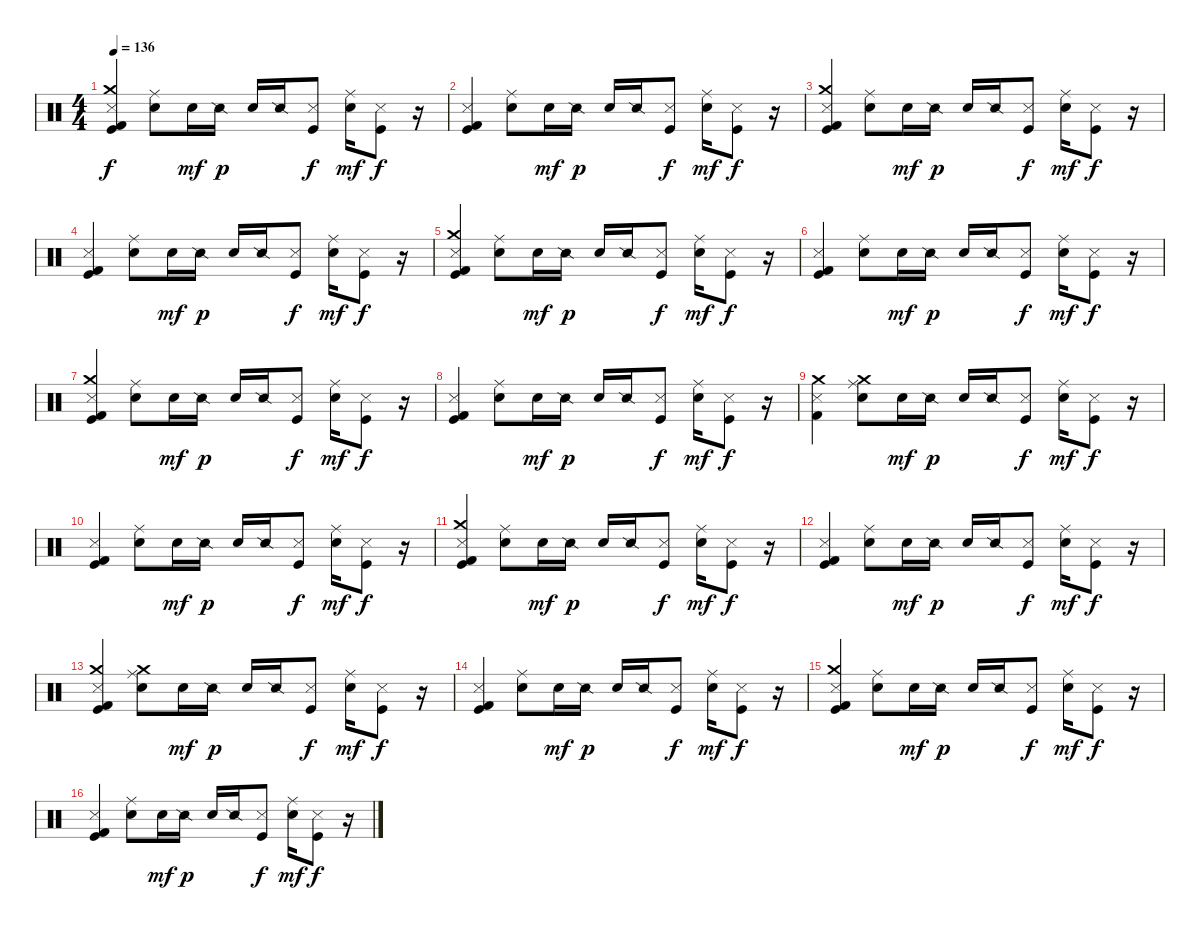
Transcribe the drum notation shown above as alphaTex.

\track "" {instrument percussion}
\staff {score}
\articulation defaults
\ts (4 4)
\tempo 136
\clef neutral
\ks c
("Metronome (hit)" "Kick (hit) 2" "Crash medium (hit)" "Kick (hit)").4{dy f} ("Ride (middle)" "Metronome (bell)").8 "Electric Snare (hit)".16{dy mf} "Snare (side stick) 2".16{dy p} "Electric Snare (hit)".16 "Snare (side stick) 2".16 ("Metronome (hit)" "Kick (hit)").8{dy f} ("Ride (middle)" "Electric Snare (hit)").16{dy mf} ("Metronome (hit)" "Kick (hit)").8{dy f} r.16 |
("Metronome (hit)" "Kick (hit) 2" "Kick (hit)").4 ("Ride (middle)" "Metronome (bell)").8 "Electric Snare (hit)".16{dy mf} "Snare (side stick) 2".16{dy p} "Electric Snare (hit)".16 "Snare (side stick) 2".16 ("Metronome (hit)" "Kick (hit)").8{dy f} ("Ride (middle)" "Electric Snare (hit)").16{dy mf} ("Metronome (hit)" "Kick (hit)").8{dy f} r.16 |
("Metronome (hit)" "Kick (hit) 2" "Crash medium (hit)" "Kick (hit)").4 ("Ride (middle)" "Metronome (bell)").8 "Electric Snare (hit)".16{dy mf} "Snare (side stick) 2".16{dy p} "Electric Snare (hit)".16 "Snare (side stick) 2".16 ("Metronome (hit)" "Kick (hit)").8{dy f} ("Ride (middle)" "Electric Snare (hit)").16{dy mf} ("Metronome (hit)" "Kick (hit)").8{dy f} r.16 |
("Metronome (hit)" "Kick (hit) 2" "Kick (hit)").4 ("Ride (middle)" "Metronome (bell)").8 "Electric Snare (hit)".16{dy mf} "Snare (side stick) 2".16{dy p} "Electric Snare (hit)".16 "Snare (side stick) 2".16 ("Metronome (hit)" "Kick (hit)").8{dy f} ("Ride (middle)" "Electric Snare (hit)").16{dy mf} ("Metronome (hit)" "Kick (hit)").8{dy f} r.16 |
("Metronome (hit)" "Kick (hit) 2" "Crash medium (hit)" "Kick (hit)").4 ("Ride (middle)" "Metronome (bell)").8 "Electric Snare (hit)".16{dy mf} "Snare (side stick) 2".16{dy p} "Electric Snare (hit)".16 "Snare (side stick) 2".16 ("Metronome (hit)" "Kick (hit)").8{dy f} ("Ride (middle)" "Electric Snare (hit)").16{dy mf} ("Metronome (hit)" "Kick (hit)").8{dy f} r.16 |
("Metronome (hit)" "Kick (hit) 2" "Kick (hit)").4 ("Ride (middle)" "Metronome (bell)").8 "Electric Snare (hit)".16{dy mf} "Snare (side stick) 2".16{dy p} "Electric Snare (hit)".16 "Snare (side stick) 2".16 ("Metronome (hit)" "Kick (hit)").8{dy f} ("Ride (middle)" "Electric Snare (hit)").16{dy mf} ("Metronome (hit)" "Kick (hit)").8{dy f} r.16 |
("Metronome (hit)" "Kick (hit) 2" "Crash medium (hit)" "Kick (hit)").4 ("Ride (middle)" "Metronome (bell)").8 "Electric Snare (hit)".16{dy mf} "Snare (side stick) 2".16{dy p} "Electric Snare (hit)".16 "Snare (side stick) 2".16 ("Metronome (hit)" "Kick (hit)").8{dy f} ("Ride (middle)" "Electric Snare (hit)").16{dy mf} ("Metronome (hit)" "Kick (hit)").8{dy f} r.16 |
("Metronome (hit)" "Kick (hit) 2" "Kick (hit)").4 ("Ride (middle)" "Metronome (bell)").8 "Electric Snare (hit)".16{dy mf} "Snare (side stick) 2".16{dy p} "Electric Snare (hit)".16 "Snare (side stick) 2".16 ("Metronome (hit)" "Kick (hit)").8{dy f} ("Ride (middle)" "Electric Snare (hit)").16{dy mf} ("Metronome (hit)" "Kick (hit)").8{dy f} r.16 |
("Metronome (hit)" "Kick (hit) 2" "Crash medium (hit)").4 ("Ride (middle)" "Metronome (bell)" "Crash medium (hit)").8 "Electric Snare (hit)".16{dy mf} "Snare (side stick) 2".16{dy p} "Electric Snare (hit)".16 "Snare (side stick) 2".16 ("Metronome (hit)" "Kick (hit)").8{dy f} ("Ride (middle)" "Electric Snare (hit)").16{dy mf} ("Metronome (hit)" "Kick (hit)").8{dy f} r.16 |
("Metronome (hit)" "Kick (hit) 2" "Kick (hit)").4 ("Ride (middle)" "Metronome (bell)").8 "Electric Snare (hit)".16{dy mf} "Snare (side stick) 2".16{dy p} "Electric Snare (hit)".16 "Snare (side stick) 2".16 ("Metronome (hit)" "Kick (hit)").8{dy f} ("Ride (middle)" "Electric Snare (hit)").16{dy mf} ("Metronome (hit)" "Kick (hit)").8{dy f} r.16 |
("Metronome (hit)" "Kick (hit) 2" "Crash medium (hit)" "Kick (hit)").4 ("Ride (middle)" "Metronome (bell)").8 "Electric Snare (hit)".16{dy mf} "Snare (side stick) 2".16{dy p} "Electric Snare (hit)".16 "Snare (side stick) 2".16 ("Metronome (hit)" "Kick (hit)").8{dy f} ("Ride (middle)" "Electric Snare (hit)").16{dy mf} ("Metronome (hit)" "Kick (hit)").8{dy f} r.16 |
("Metronome (hit)" "Kick (hit) 2" "Kick (hit)").4 ("Ride (middle)" "Metronome (bell)").8 "Electric Snare (hit)".16{dy mf} "Snare (side stick) 2".16{dy p} "Electric Snare (hit)".16 "Snare (side stick) 2".16 ("Metronome (hit)" "Kick (hit)").8{dy f} ("Ride (middle)" "Electric Snare (hit)").16{dy mf} ("Metronome (hit)" "Kick (hit)").8{dy f} r.16 |
("Metronome (hit)" "Kick (hit) 2" "Crash medium (hit)" "Kick (hit)").4 ("Ride (middle)" "Metronome (bell)" "Crash medium (hit)").8 "Electric Snare (hit)".16{dy mf} "Snare (side stick) 2".16{dy p} "Electric Snare (hit)".16 "Snare (side stick) 2".16 ("Metronome (hit)" "Kick (hit)").8{dy f} ("Ride (middle)" "Electric Snare (hit)").16{dy mf} ("Metronome (hit)" "Kick (hit)").8{dy f} r.16 |
("Metronome (hit)" "Kick (hit) 2" "Kick (hit)").4 ("Ride (middle)" "Metronome (bell)").8 "Electric Snare (hit)".16{dy mf} "Snare (side stick) 2".16{dy p} "Electric Snare (hit)".16 "Snare (side stick) 2".16 ("Metronome (hit)" "Kick (hit)").8{dy f} ("Ride (middle)" "Electric Snare (hit)").16{dy mf} ("Metronome (hit)" "Kick (hit)").8{dy f} r.16 |
("Metronome (hit)" "Kick (hit) 2" "Crash medium (hit)" "Kick (hit)").4 ("Ride (middle)" "Metronome (bell)").8 "Electric Snare (hit)".16{dy mf} "Snare (side stick) 2".16{dy p} "Electric Snare (hit)".16 "Snare (side stick) 2".16 ("Metronome (hit)" "Kick (hit)").8{dy f} ("Ride (middle)" "Electric Snare (hit)").16{dy mf} ("Metronome (hit)" "Kick (hit)").8{dy f} r.16 |
("Metronome (hit)" "Kick (hit) 2" "Kick (hit)").4 ("Ride (middle)" "Metronome (bell)").8 "Electric Snare (hit)".16{dy mf} "Snare (side stick) 2".16{dy p} "Electric Snare (hit)".16 "Snare (side stick) 2".16 ("Metronome (hit)" "Kick (hit)").8{dy f} ("Ride (middle)" "Electric Snare (hit)").16{dy mf} ("Metronome (hit)" "Kick (hit)").8{dy f} r.16
